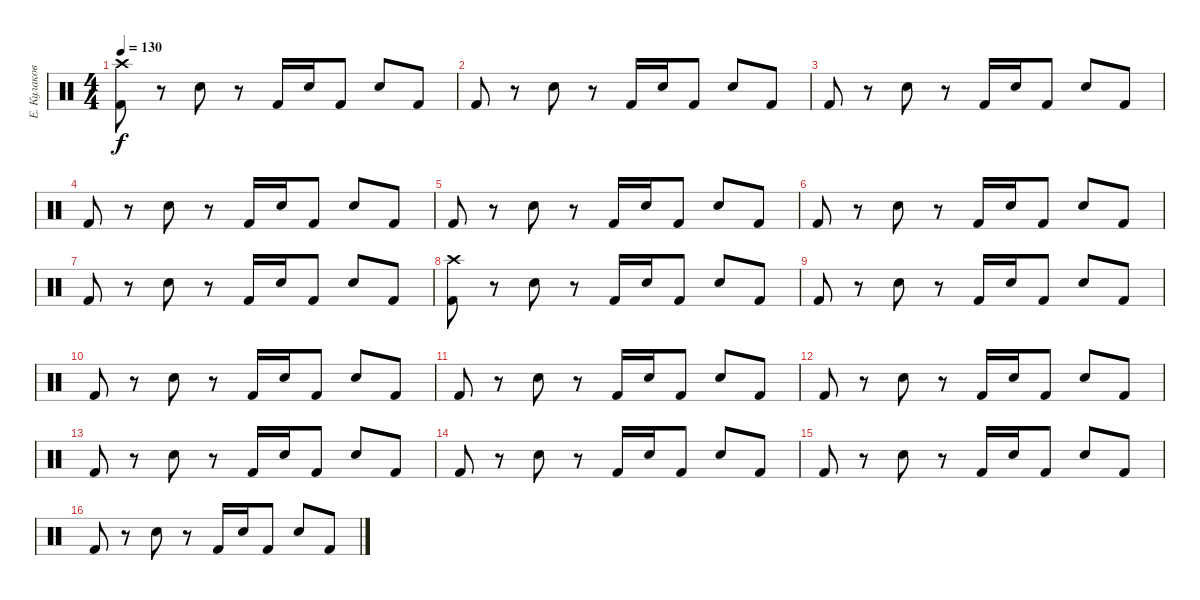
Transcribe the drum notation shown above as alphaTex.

\track ("Е. Кулаков" "Е. Кулаков") {instrument percussion}
\staff {score}
\articulation defaults
\ts (4 4)
\tempo 130
\clef neutral
\ks c
("Crash high (hit)" "Kick (hit) 2").8{dy f} r.8 "Electric Snare (hit)".8 r.8 "Kick (hit) 2".16 "Electric Snare (hit)".16 "Kick (hit) 2".8 "Electric Snare (hit)".8 "Kick (hit) 2".8 |
"Kick (hit) 2".8 r.8 "Electric Snare (hit)".8 r.8 "Kick (hit) 2".16 "Electric Snare (hit)".16 "Kick (hit) 2".8 "Electric Snare (hit)".8 "Kick (hit) 2".8 |
"Kick (hit) 2".8 r.8 "Electric Snare (hit)".8 r.8 "Kick (hit) 2".16 "Electric Snare (hit)".16 "Kick (hit) 2".8 "Electric Snare (hit)".8 "Kick (hit) 2".8 |
"Kick (hit) 2".8 r.8 "Electric Snare (hit)".8 r.8 "Kick (hit) 2".16 "Electric Snare (hit)".16 "Kick (hit) 2".8 "Electric Snare (hit)".8 "Kick (hit) 2".8 |
"Kick (hit) 2".8 r.8 "Electric Snare (hit)".8 r.8 "Kick (hit) 2".16 "Electric Snare (hit)".16 "Kick (hit) 2".8 "Electric Snare (hit)".8 "Kick (hit) 2".8 |
"Kick (hit) 2".8 r.8 "Electric Snare (hit)".8 r.8 "Kick (hit) 2".16 "Electric Snare (hit)".16 "Kick (hit) 2".8 "Electric Snare (hit)".8 "Kick (hit) 2".8 |
"Kick (hit) 2".8 r.8 "Electric Snare (hit)".8 r.8 "Kick (hit) 2".16 "Electric Snare (hit)".16 "Kick (hit) 2".8 "Electric Snare (hit)".8 "Kick (hit) 2".8 |
("Crash high (hit)" "Kick (hit) 2").8 r.8 "Electric Snare (hit)".8 r.8 "Kick (hit) 2".16 "Electric Snare (hit)".16 "Kick (hit) 2".8 "Electric Snare (hit)".8 "Kick (hit) 2".8 |
"Kick (hit) 2".8 r.8 "Electric Snare (hit)".8 r.8 "Kick (hit) 2".16 "Electric Snare (hit)".16 "Kick (hit) 2".8 "Electric Snare (hit)".8 "Kick (hit) 2".8 |
"Kick (hit) 2".8 r.8 "Electric Snare (hit)".8 r.8 "Kick (hit) 2".16 "Electric Snare (hit)".16 "Kick (hit) 2".8 "Electric Snare (hit)".8 "Kick (hit) 2".8 |
"Kick (hit) 2".8 r.8 "Electric Snare (hit)".8 r.8 "Kick (hit) 2".16 "Electric Snare (hit)".16 "Kick (hit) 2".8 "Electric Snare (hit)".8 "Kick (hit) 2".8 |
"Kick (hit) 2".8 r.8 "Electric Snare (hit)".8 r.8 "Kick (hit) 2".16 "Electric Snare (hit)".16 "Kick (hit) 2".8 "Electric Snare (hit)".8 "Kick (hit) 2".8 |
"Kick (hit) 2".8 r.8 "Electric Snare (hit)".8 r.8 "Kick (hit) 2".16 "Electric Snare (hit)".16 "Kick (hit) 2".8 "Electric Snare (hit)".8 "Kick (hit) 2".8 |
"Kick (hit) 2".8 r.8 "Electric Snare (hit)".8 r.8 "Kick (hit) 2".16 "Electric Snare (hit)".16 "Kick (hit) 2".8 "Electric Snare (hit)".8 "Kick (hit) 2".8 |
"Kick (hit) 2".8 r.8 "Electric Snare (hit)".8 r.8 "Kick (hit) 2".16 "Electric Snare (hit)".16 "Kick (hit) 2".8 "Electric Snare (hit)".8 "Kick (hit) 2".8 |
"Kick (hit) 2".8 r.8 "Electric Snare (hit)".8 r.8 "Kick (hit) 2".16 "Electric Snare (hit)".16 "Kick (hit) 2".8 "Electric Snare (hit)".8 "Kick (hit) 2".8
